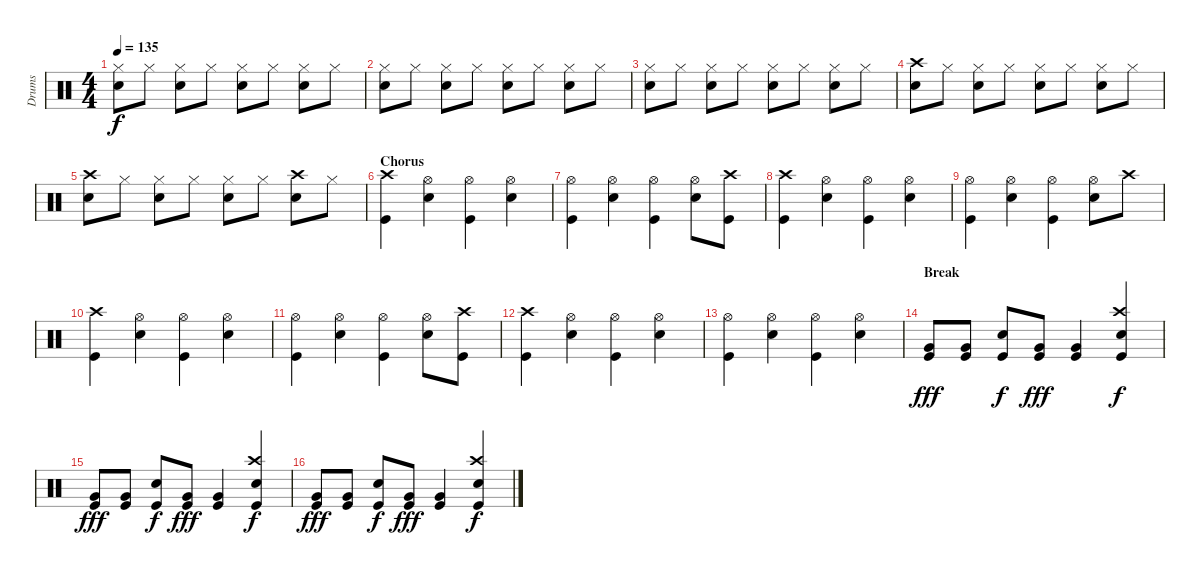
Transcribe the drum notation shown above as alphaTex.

\track ("Drums" "Drums") {instrument percussion}
\staff {score}
\articulation defaults
\ts (4 4)
\tempo 135
\clef neutral
\ks c
("Snare (hit) 2" "Hi-Hat (closed)").8{dy f} "Hi-Hat (closed)".8 ("Snare (hit) 2" "Hi-Hat (closed)").8 "Hi-Hat (closed)".8 ("Snare (hit) 2" "Hi-Hat (closed)").8 "Hi-Hat (closed)".8 ("Snare (hit) 2" "Hi-Hat (closed)").8 "Hi-Hat (closed)".8 |
("Snare (hit) 2" "Hi-Hat (closed)").8 "Hi-Hat (closed)".8 ("Snare (hit) 2" "Hi-Hat (closed)").8 "Hi-Hat (closed)".8 ("Snare (hit) 2" "Hi-Hat (closed)").8 "Hi-Hat (closed)".8 ("Snare (hit) 2" "Hi-Hat (closed)").8 "Hi-Hat (closed)".8 |
("Snare (hit) 2" "Hi-Hat (closed)").8 "Hi-Hat (closed)".8 ("Snare (hit) 2" "Hi-Hat (closed)").8 "Hi-Hat (closed)".8 ("Snare (hit) 2" "Hi-Hat (closed)").8 "Hi-Hat (closed)".8 ("Snare (hit) 2" "Hi-Hat (closed)").8 "Hi-Hat (closed)".8 |
("Snare (hit) 2" "Crash high (hit)").8 "Hi-Hat (closed)".8 ("Snare (hit) 2" "Hi-Hat (closed)").8 "Hi-Hat (closed)".8 ("Snare (hit) 2" "Hi-Hat (closed)").8 "Hi-Hat (closed)".8 ("Snare (hit) 2" "Hi-Hat (closed)").8 "Hi-Hat (closed)".8 |
("Snare (hit) 2" "Crash high (hit)").8 "Hi-Hat (closed)".8 ("Snare (hit) 2" "Hi-Hat (closed)").8 "Hi-Hat (closed)".8 ("Snare (hit) 2" "Hi-Hat (closed)").8 "Hi-Hat (closed)".8 ("Snare (hit) 2" "Crash high (hit)").8 "Hi-Hat (closed)".8 |
\section ("" "Chorus")
("Crash high (hit)" "Kick (hit)").4 ("Hi-Hat (open)" "Snare (hit) 2").4 ("Hi-Hat (open)" "Kick (hit)").4 ("Hi-Hat (open)" "Snare (hit) 2").4 |
("Hi-Hat (open)" "Kick (hit)").4 ("Hi-Hat (open)" "Snare (hit) 2").4 ("Hi-Hat (open)" "Kick (hit)").4 ("Hi-Hat (open)" "Snare (hit) 2").8 ("Crash high (hit)" "Kick (hit)").8 |
("Crash high (hit)" "Kick (hit)").4 ("Hi-Hat (open)" "Snare (hit) 2").4 ("Hi-Hat (open)" "Kick (hit)").4 ("Hi-Hat (open)" "Snare (hit) 2").4 |
("Hi-Hat (open)" "Kick (hit)").4 ("Hi-Hat (open)" "Snare (hit) 2").4 ("Hi-Hat (open)" "Kick (hit)").4 ("Hi-Hat (open)" "Snare (hit) 2").8 "Crash high (hit)".8 |
("Crash high (hit)" "Kick (hit)").4 ("Hi-Hat (open)" "Snare (hit) 2").4 ("Hi-Hat (open)" "Kick (hit)").4 ("Hi-Hat (open)" "Snare (hit) 2").4 |
("Hi-Hat (open)" "Kick (hit)").4 ("Hi-Hat (open)" "Snare (hit) 2").4 ("Hi-Hat (open)" "Kick (hit)").4 ("Hi-Hat (open)" "Snare (hit) 2").8 ("Crash high (hit)" "Kick (hit)").8 |
("Crash high (hit)" "Kick (hit)").4 ("Hi-Hat (open)" "Snare (hit) 2").4 ("Hi-Hat (open)" "Kick (hit)").4 ("Hi-Hat (open)" "Snare (hit) 2").4 |
("Hi-Hat (open)" "Kick (hit)").4 ("Hi-Hat (open)" "Snare (hit) 2").4 ("Hi-Hat (open)" "Kick (hit)").4 ("Hi-Hat (open)" "Snare (hit) 2").4 |
\section ("" "Break")
("Very Low Tom (hit)" "Kick (hit)").8{dy fff} ("Very Low Tom (hit)" "Kick (hit)").8 ("Snare (hit) 2" "Kick (hit)").8{dy f} ("Very Low Tom (hit)" "Kick (hit)").8{dy fff} ("Very Low Tom (hit)" "Kick (hit)").4 ("Crash high (hit)" "Kick (hit)" "Snare (hit) 2").4{dy f} |
("Very Low Tom (hit)" "Kick (hit)").8{dy fff} ("Very Low Tom (hit)" "Kick (hit)").8 ("Snare (hit) 2" "Kick (hit)").8{dy f} ("Very Low Tom (hit)" "Kick (hit)").8{dy fff} ("Very Low Tom (hit)" "Kick (hit)").4 ("Crash high (hit)" "Kick (hit)" "Snare (hit) 2").4{dy f} |
("Very Low Tom (hit)" "Kick (hit)").8{dy fff} ("Very Low Tom (hit)" "Kick (hit)").8 ("Snare (hit) 2" "Kick (hit)").8{dy f} ("Very Low Tom (hit)" "Kick (hit)").8{dy fff} ("Very Low Tom (hit)" "Kick (hit)").4 ("Crash high (hit)" "Kick (hit)" "Snare (hit) 2").4{dy f}
